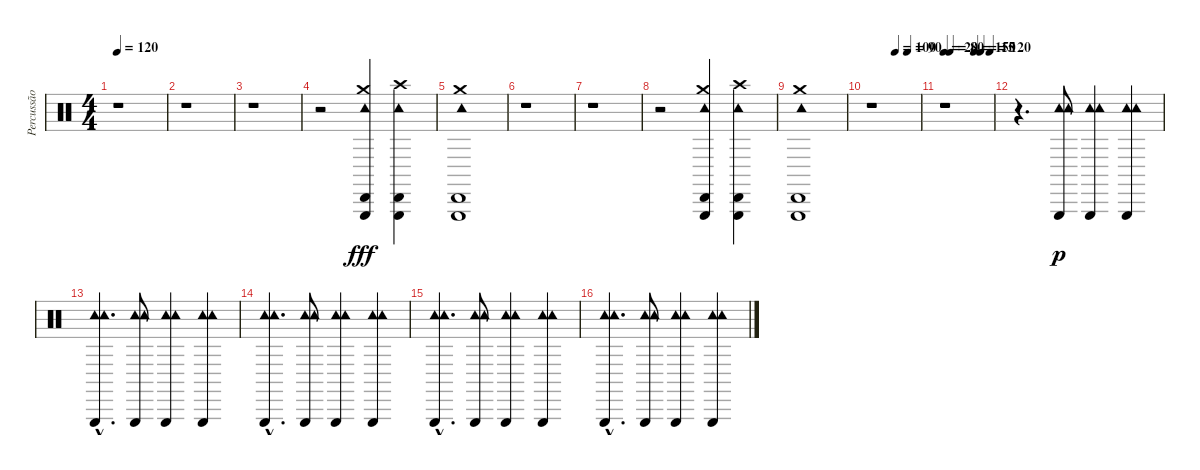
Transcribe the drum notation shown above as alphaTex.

\track ("Percussão" "Percussão") {instrument percussion}
\staff {score}
\articulation defaults
\ts (4 4)
\tempo 120
\clef neutral
\ks c
r.1{dy p} |
r.1 |
r.1 |
r.2 ("Tambourine (hit)" "Crash medium (hit)" "Triangle (hit)" "Cabasa (hit)").4{dy fff} ("Tambourine (hit)" "Crash high (hit)" "Triangle (hit)" "Cabasa (hit)").4 |
("Tambourine (hit)" "Crash medium (hit)" "Triangle (hit)" "Cabasa (hit)").1 |
r.1 |
r.1 |
r.2 ("Tambourine (hit)" "Crash medium (hit)" "Triangle (hit)" "Cabasa (hit)").4 ("Tambourine (hit)" "Crash high (hit)" "Triangle (hit)" "Cabasa (hit)").4 |
("Tambourine (hit)" "Crash medium (hit)" "Triangle (hit)" "Cabasa (hit)").1 |
\tempo (100 0.5)
\tempo (90 0.75)
r.1 |
\tempo 20
\tempo (80 0.125)
\tempo (150 0.625)
\tempo (15 0.75)
\tempo (120 0.9375)
r.1 |
r.4{d} ("Tambourine (hit)" "Tambourine (hit)" "Triangle (hit)").8{dy p} ("Tambourine (hit)" "Tambourine (hit)" "Triangle (hit)").4 ("Tambourine (hit)" "Tambourine (hit)" "Triangle (hit)").4 |
("Tambourine (hit)"{hac} "Tambourine (hit)"{hac} "Triangle (hit)"{hac}).4{d} ("Tambourine (hit)" "Tambourine (hit)" "Triangle (hit)").8 ("Tambourine (hit)" "Tambourine (hit)" "Triangle (hit)").4 ("Tambourine (hit)" "Tambourine (hit)" "Triangle (hit)").4 |
("Tambourine (hit)"{hac} "Tambourine (hit)"{hac} "Triangle (hit)"{hac}).4{d} ("Tambourine (hit)" "Tambourine (hit)" "Triangle (hit)").8 ("Tambourine (hit)" "Tambourine (hit)" "Triangle (hit)").4 ("Tambourine (hit)" "Tambourine (hit)" "Triangle (hit)").4 |
("Tambourine (hit)"{hac} "Tambourine (hit)"{hac} "Triangle (hit)"{hac}).4{d} ("Tambourine (hit)" "Tambourine (hit)" "Triangle (hit)").8 ("Tambourine (hit)" "Tambourine (hit)" "Triangle (hit)").4 ("Tambourine (hit)" "Tambourine (hit)" "Triangle (hit)").4 |
("Tambourine (hit)"{hac} "Tambourine (hit)"{hac} "Triangle (hit)"{hac}).4{d} ("Tambourine (hit)" "Tambourine (hit)" "Triangle (hit)").8 ("Tambourine (hit)" "Tambourine (hit)" "Triangle (hit)").4 ("Tambourine (hit)" "Tambourine (hit)" "Triangle (hit)").4
